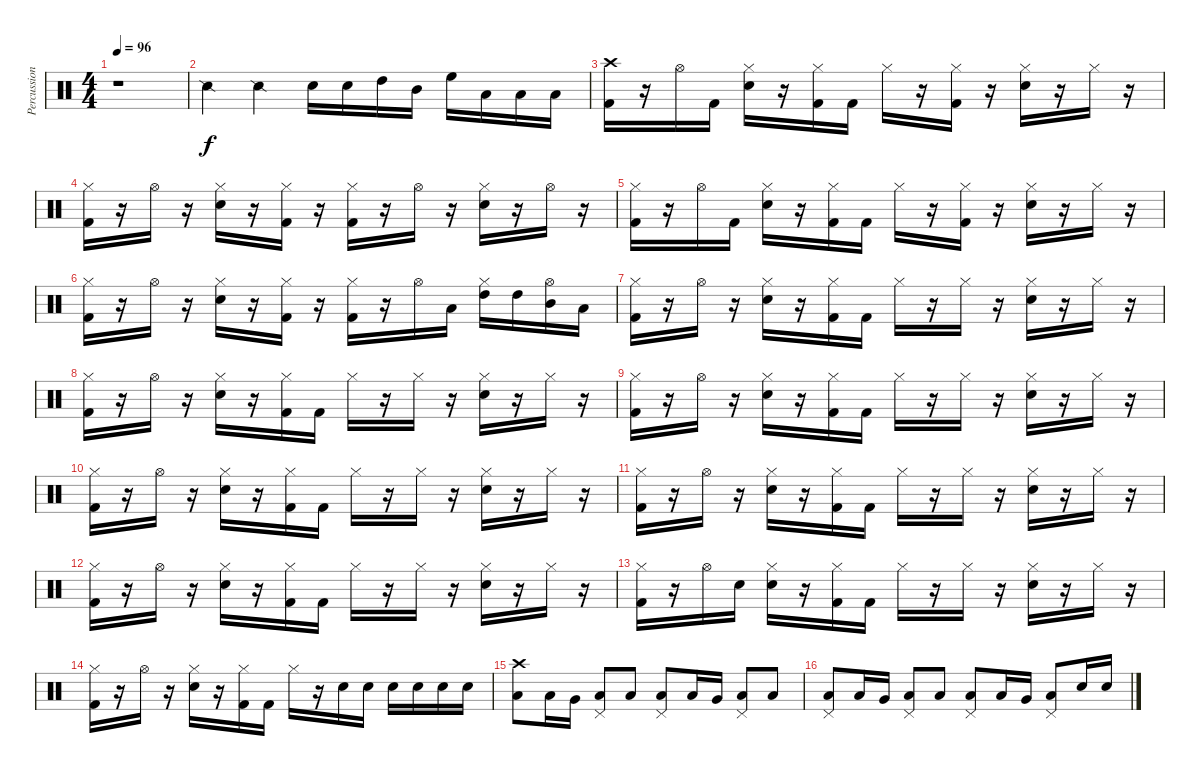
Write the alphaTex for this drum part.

\track ("Percussion" "Percussion") {instrument percussion}
\staff {score}
\articulation defaults
\ts (4 4)
\tempo 96
\clef neutral
\ks c
r.1{dy f} |
"Snare (side stick) 2".4 "Snare (side stick) 2".4 "Snare (hit) 2".16 "Snare (hit) 2".16 "High Tom (hit)".16 "Mid Tom (hit)".16 "High Floor Tom (hit)".16 "Low Floor Tom (hit)".16 "Low Floor Tom (hit)".16 "Low Floor Tom (hit)".16 |
("Crash high (hit)" "Kick (hit) 2").16 r.16 "Hi-Hat (open)".16 "Kick (hit) 2".16 ("Hi-Hat (closed)" "Snare (hit) 2").16 r.16 ("Hi-Hat (closed)" "Kick (hit) 2").16 "Kick (hit) 2".16 "Hi-Hat (closed)".16 r.16 ("Hi-Hat (closed)" "Kick (hit) 2").16 r.16 ("Hi-Hat (closed)" "Snare (hit) 2").16 r.16 "Hi-Hat (closed)".16 r.16 |
("Hi-Hat (closed)" "Kick (hit) 2").16 r.16 "Hi-Hat (open)".16 r.16 ("Hi-Hat (closed)" "Snare (hit) 2").16 r.16 ("Hi-Hat (closed)" "Kick (hit) 2").16 r.16 ("Hi-Hat (closed)" "Kick (hit) 2").16 r.16 "Hi-Hat (open)".16 r.16 ("Hi-Hat (closed)" "Snare (hit) 2").16 r.16 "Hi-Hat (open)".16 r.16 |
("Hi-Hat (closed)" "Kick (hit) 2").16 r.16 "Hi-Hat (open)".16 "Kick (hit) 2".16 ("Hi-Hat (closed)" "Snare (hit) 2").16 r.16 ("Hi-Hat (closed)" "Kick (hit) 2").16 "Kick (hit) 2".16 "Hi-Hat (closed)".16 r.16 ("Hi-Hat (closed)" "Kick (hit) 2").16 r.16 ("Hi-Hat (closed)" "Snare (hit) 2").16 r.16 "Hi-Hat (closed)".16 r.16 |
("Hi-Hat (closed)" "Kick (hit) 2").16 r.16 "Hi-Hat (open)".16 r.16 ("Hi-Hat (closed)" "Snare (hit) 2").16 r.16 ("Hi-Hat (closed)" "Kick (hit) 2").16 r.16 ("Hi-Hat (closed)" "Kick (hit) 2").16 r.16 "Hi-Hat (open)".16 "Low Floor Tom (hit)".16 ("Hi-Hat (closed)" "High Tom (hit)").16 "High Tom (hit)".16 ("Hi-Hat (open)" "Mid Tom (hit)").16 "Low Floor Tom (hit)".16 |
("Hi-Hat (closed)" "Kick (hit) 2").16 r.16 "Hi-Hat (open)".16 r.16 ("Hi-Hat (closed)" "Snare (hit) 2").16 r.16 ("Hi-Hat (closed)" "Kick (hit) 2").16 "Kick (hit) 2".16 "Hi-Hat (closed)".16 r.16 "Hi-Hat (closed)".16 r.16 ("Hi-Hat (closed)" "Snare (hit) 2").16 r.16 "Hi-Hat (closed)".16 r.16 |
("Hi-Hat (closed)" "Kick (hit) 2").16 r.16 "Hi-Hat (open)".16 r.16 ("Hi-Hat (closed)" "Snare (hit) 2").16 r.16 ("Hi-Hat (closed)" "Kick (hit) 2").16 "Kick (hit) 2".16 "Hi-Hat (closed)".16 r.16 "Hi-Hat (closed)".16 r.16 ("Hi-Hat (closed)" "Snare (hit) 2").16 r.16 "Hi-Hat (closed)".16 r.16 |
("Hi-Hat (closed)" "Kick (hit) 2").16 r.16 "Hi-Hat (open)".16 r.16 ("Hi-Hat (closed)" "Snare (hit) 2").16 r.16 ("Hi-Hat (closed)" "Kick (hit) 2").16 "Kick (hit) 2".16 "Hi-Hat (closed)".16 r.16 "Hi-Hat (closed)".16 r.16 ("Hi-Hat (closed)" "Snare (hit) 2").16 r.16 "Hi-Hat (closed)".16 r.16 |
("Hi-Hat (closed)" "Kick (hit) 2").16 r.16 "Hi-Hat (open)".16 r.16 ("Hi-Hat (closed)" "Snare (hit) 2").16 r.16 ("Hi-Hat (closed)" "Kick (hit) 2").16 "Kick (hit) 2".16 "Hi-Hat (closed)".16 r.16 "Hi-Hat (closed)".16 r.16 ("Hi-Hat (closed)" "Snare (hit) 2").16 r.16 "Hi-Hat (closed)".16 r.16 |
("Hi-Hat (closed)" "Kick (hit) 2").16 r.16 "Hi-Hat (open)".16 r.16 ("Hi-Hat (closed)" "Snare (hit) 2").16 r.16 ("Hi-Hat (closed)" "Kick (hit) 2").16 "Kick (hit) 2".16 "Hi-Hat (closed)".16 r.16 "Hi-Hat (closed)".16 r.16 ("Hi-Hat (closed)" "Snare (hit) 2").16 r.16 "Hi-Hat (closed)".16 r.16 |
("Hi-Hat (closed)" "Kick (hit) 2").16 r.16 "Hi-Hat (open)".16 r.16 ("Hi-Hat (closed)" "Snare (hit) 2").16 r.16 ("Hi-Hat (closed)" "Kick (hit) 2").16 "Kick (hit) 2".16 "Hi-Hat (closed)".16 r.16 "Hi-Hat (closed)".16 r.16 ("Hi-Hat (closed)" "Snare (hit) 2").16 r.16 "Hi-Hat (closed)".16 r.16 |
("Hi-Hat (closed)" "Kick (hit) 2").16 r.16 "Hi-Hat (open)".16 "Snare (hit) 2".16 ("Hi-Hat (closed)" "Snare (hit) 2").16 r.16 ("Hi-Hat (closed)" "Kick (hit) 2").16 "Kick (hit) 2".16 "Hi-Hat (closed)".16 r.16 "Hi-Hat (closed)".16 r.16 ("Hi-Hat (closed)" "Snare (hit) 2").16 r.16 "Hi-Hat (closed)".16 r.16 |
("Hi-Hat (closed)" "Kick (hit) 2").16 r.16 "Hi-Hat (open)".16 r.16 ("Hi-Hat (closed)" "Snare (hit) 2").16 r.16 ("Hi-Hat (closed)" "Kick (hit) 2").16 "Kick (hit) 2".16 "Hi-Hat (closed)".16 r.16 "Snare (hit) 2".16 "Snare (hit) 2".16 "Snare (hit) 2".16 "Snare (hit) 2".16 "Snare (hit) 2".16 "Snare (hit) 2".16 |
("Crash high (hit)" "Low Floor Tom (hit)").8 "Low Tom (hit)".16 "Very Low Tom (hit)".16 ("Pedal Hi-Hat (hit)" "Low Floor Tom (hit)").8 "Low Tom (hit)".8 ("Pedal Hi-Hat (hit)" "Low Floor Tom (hit)").8 "Low Tom (hit)".16 "Very Low Tom (hit)".16 ("Pedal Hi-Hat (hit)" "Low Floor Tom (hit)").8 "Low Tom (hit)".8 |
("Pedal Hi-Hat (hit)" "Low Floor Tom (hit)").8 "Low Tom (hit)".16 "Very Low Tom (hit)".16 ("Pedal Hi-Hat (hit)" "Low Floor Tom (hit)").8 "Low Tom (hit)".8 ("Pedal Hi-Hat (hit)" "Low Floor Tom (hit)").8 "Low Tom (hit)".16 "Very Low Tom (hit)".16 ("Pedal Hi-Hat (hit)" "Low Floor Tom (hit)").8 "Snare (hit) 2".16 "Snare (hit) 2".16
